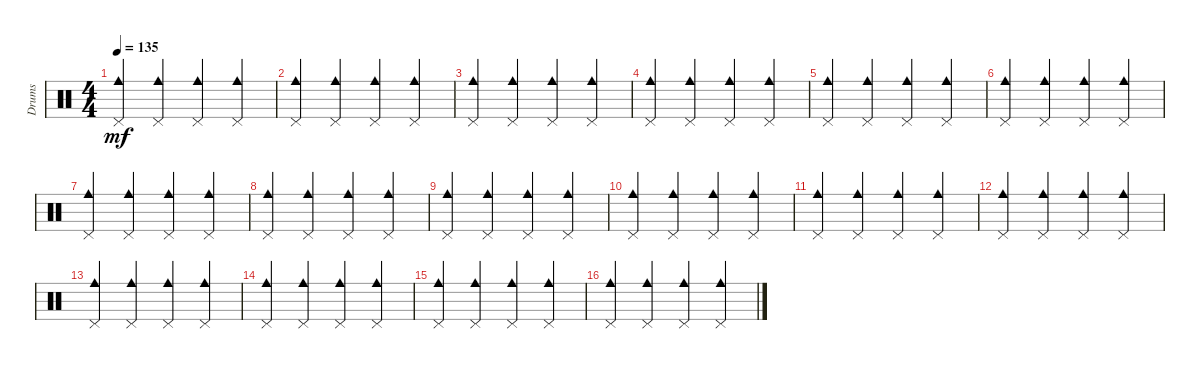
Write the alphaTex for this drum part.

\track ("Drums" "Drums") {instrument percussion}
\staff {score}
\articulation defaults
\ts (4 4)
\tempo 135
\clef neutral
\ks c
("Cowbell medium (hit)" "Pedal Hi-Hat (hit)").4{dy mf} ("Cowbell medium (hit)" "Pedal Hi-Hat (hit)").4 ("Cowbell medium (hit)" "Pedal Hi-Hat (hit)").4 ("Cowbell medium (hit)" "Pedal Hi-Hat (hit)").4 |
("Cowbell medium (hit)" "Pedal Hi-Hat (hit)").4 ("Cowbell medium (hit)" "Pedal Hi-Hat (hit)").4 ("Cowbell medium (hit)" "Pedal Hi-Hat (hit)").4 ("Cowbell medium (hit)" "Pedal Hi-Hat (hit)").4 |
("Cowbell medium (hit)" "Pedal Hi-Hat (hit)").4 ("Cowbell medium (hit)" "Pedal Hi-Hat (hit)").4 ("Cowbell medium (hit)" "Pedal Hi-Hat (hit)").4 ("Cowbell medium (hit)" "Pedal Hi-Hat (hit)").4 |
("Cowbell medium (hit)" "Pedal Hi-Hat (hit)").4 ("Cowbell medium (hit)" "Pedal Hi-Hat (hit)").4 ("Cowbell medium (hit)" "Pedal Hi-Hat (hit)").4 ("Cowbell medium (hit)" "Pedal Hi-Hat (hit)").4 |
("Cowbell medium (hit)" "Pedal Hi-Hat (hit)").4 ("Cowbell medium (hit)" "Pedal Hi-Hat (hit)").4 ("Cowbell medium (hit)" "Pedal Hi-Hat (hit)").4 ("Cowbell medium (hit)" "Pedal Hi-Hat (hit)").4 |
("Cowbell medium (hit)" "Pedal Hi-Hat (hit)").4 ("Cowbell medium (hit)" "Pedal Hi-Hat (hit)").4 ("Cowbell medium (hit)" "Pedal Hi-Hat (hit)").4 ("Cowbell medium (hit)" "Pedal Hi-Hat (hit)").4 |
("Cowbell medium (hit)" "Pedal Hi-Hat (hit)").4 ("Cowbell medium (hit)" "Pedal Hi-Hat (hit)").4 ("Cowbell medium (hit)" "Pedal Hi-Hat (hit)").4 ("Cowbell medium (hit)" "Pedal Hi-Hat (hit)").4 |
("Cowbell medium (hit)" "Pedal Hi-Hat (hit)").4 ("Cowbell medium (hit)" "Pedal Hi-Hat (hit)").4 ("Cowbell medium (hit)" "Pedal Hi-Hat (hit)").4 ("Cowbell medium (hit)" "Pedal Hi-Hat (hit)").4 |
("Cowbell medium (hit)" "Pedal Hi-Hat (hit)").4 ("Cowbell medium (hit)" "Pedal Hi-Hat (hit)").4 ("Cowbell medium (hit)" "Pedal Hi-Hat (hit)").4 ("Cowbell medium (hit)" "Pedal Hi-Hat (hit)").4 |
("Cowbell medium (hit)" "Pedal Hi-Hat (hit)").4 ("Cowbell medium (hit)" "Pedal Hi-Hat (hit)").4 ("Cowbell medium (hit)" "Pedal Hi-Hat (hit)").4 ("Cowbell medium (hit)" "Pedal Hi-Hat (hit)").4 |
("Cowbell medium (hit)" "Pedal Hi-Hat (hit)").4 ("Cowbell medium (hit)" "Pedal Hi-Hat (hit)").4 ("Cowbell medium (hit)" "Pedal Hi-Hat (hit)").4 ("Cowbell medium (hit)" "Pedal Hi-Hat (hit)").4 |
("Cowbell medium (hit)" "Pedal Hi-Hat (hit)").4 ("Cowbell medium (hit)" "Pedal Hi-Hat (hit)").4 ("Cowbell medium (hit)" "Pedal Hi-Hat (hit)").4 ("Cowbell medium (hit)" "Pedal Hi-Hat (hit)").4 |
("Cowbell medium (hit)" "Pedal Hi-Hat (hit)").4 ("Cowbell medium (hit)" "Pedal Hi-Hat (hit)").4 ("Cowbell medium (hit)" "Pedal Hi-Hat (hit)").4 ("Cowbell medium (hit)" "Pedal Hi-Hat (hit)").4 |
("Cowbell medium (hit)" "Pedal Hi-Hat (hit)").4 ("Cowbell medium (hit)" "Pedal Hi-Hat (hit)").4 ("Cowbell medium (hit)" "Pedal Hi-Hat (hit)").4 ("Cowbell medium (hit)" "Pedal Hi-Hat (hit)").4 |
("Cowbell medium (hit)" "Pedal Hi-Hat (hit)").4 ("Cowbell medium (hit)" "Pedal Hi-Hat (hit)").4 ("Cowbell medium (hit)" "Pedal Hi-Hat (hit)").4 ("Cowbell medium (hit)" "Pedal Hi-Hat (hit)").4 |
("Cowbell medium (hit)" "Pedal Hi-Hat (hit)").4 ("Cowbell medium (hit)" "Pedal Hi-Hat (hit)").4 ("Cowbell medium (hit)" "Pedal Hi-Hat (hit)").4 ("Cowbell medium (hit)" "Pedal Hi-Hat (hit)").4
